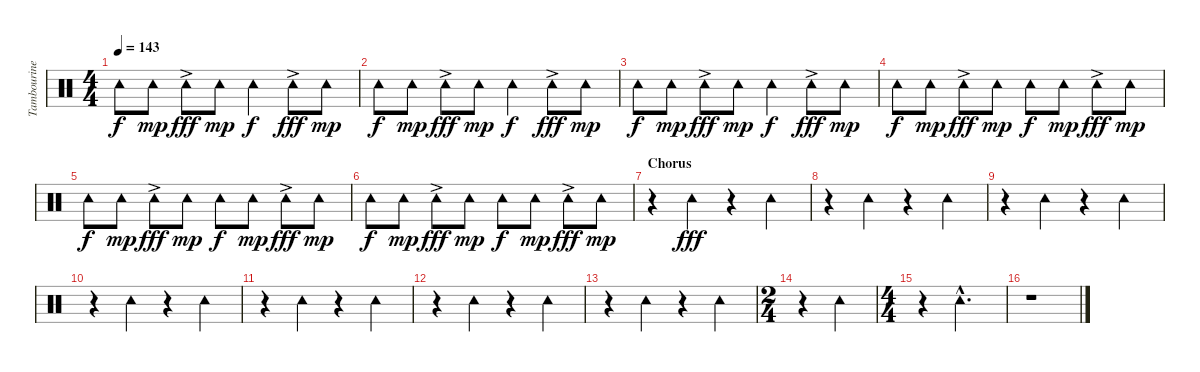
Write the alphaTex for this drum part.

\track ("Tambourine" "Tambourine") {instrument percussion}
\staff {score}
\articulation defaults
\ts (4 4)
\tempo 143
\clef neutral
\ks c "Tambourine (hit)".8{dy f} "Tambourine (hit)".8{dy mp} "Tambourine (hit)"{ac}.8{dy fff} "Tambourine (hit)".8{dy mp} "Tambourine (hit)".4{dy f} "Tambourine (hit)"{ac}.8{dy fff} "Tambourine (hit)".8{dy mp}
|
"Tambourine (hit)".8{dy f} "Tambourine (hit)".8{dy mp} "Tambourine (hit)"{ac}.8{dy fff} "Tambourine (hit)".8{dy mp} "Tambourine (hit)".4{dy f} "Tambourine (hit)"{ac}.8{dy fff} "Tambourine (hit)".8{dy mp} |
"Tambourine (hit)".8{dy f} "Tambourine (hit)".8{dy mp} "Tambourine (hit)"{ac}.8{dy fff} "Tambourine (hit)".8{dy mp} "Tambourine (hit)".4{dy f} "Tambourine (hit)"{ac}.8{dy fff} "Tambourine (hit)".8{dy mp} |
"Tambourine (hit)".8{dy f} "Tambourine (hit)".8{dy mp} "Tambourine (hit)"{ac}.8{dy fff} "Tambourine (hit)".8{dy mp} "Tambourine (hit)".8{dy f} "Tambourine (hit)".8{dy mp} "Tambourine (hit)"{ac}.8{dy fff} "Tambourine (hit)".8{dy mp} |
"Tambourine (hit)".8{dy f} "Tambourine (hit)".8{dy mp} "Tambourine (hit)"{ac}.8{dy fff} "Tambourine (hit)".8{dy mp} "Tambourine (hit)".8{dy f} "Tambourine (hit)".8{dy mp} "Tambourine (hit)"{ac}.8{dy fff} "Tambourine (hit)".8{dy mp} |
"Tambourine (hit)".8{dy f} "Tambourine (hit)".8{dy mp} "Tambourine (hit)"{ac}.8{dy fff} "Tambourine (hit)".8{dy mp} "Tambourine (hit)".8{dy f} "Tambourine (hit)".8{dy mp} "Tambourine (hit)"{ac}.8{dy fff} "Tambourine (hit)".8{dy mp} |
\section ("" "Chorus")
r.4 "Tambourine (hit)".4{dy fff} r.4 "Tambourine (hit)".4 |
r.4 "Tambourine (hit)".4 r.4 "Tambourine (hit)".4 |
r.4 "Tambourine (hit)".4 r.4 "Tambourine (hit)".4 |
r.4 "Tambourine (hit)".4 r.4 "Tambourine (hit)".4 |
r.4 "Tambourine (hit)".4 r.4 "Tambourine (hit)".4 |
r.4 "Tambourine (hit)".4 r.4 "Tambourine (hit)".4 |
r.4 "Tambourine (hit)".4 r.4 "Tambourine (hit)".4 |
\ts (2 4)
r.4 "Tambourine (hit)".4 |
\ts (4 4)
r.4 "Tambourine (hit)"{hac}.2{d} |
r.1
